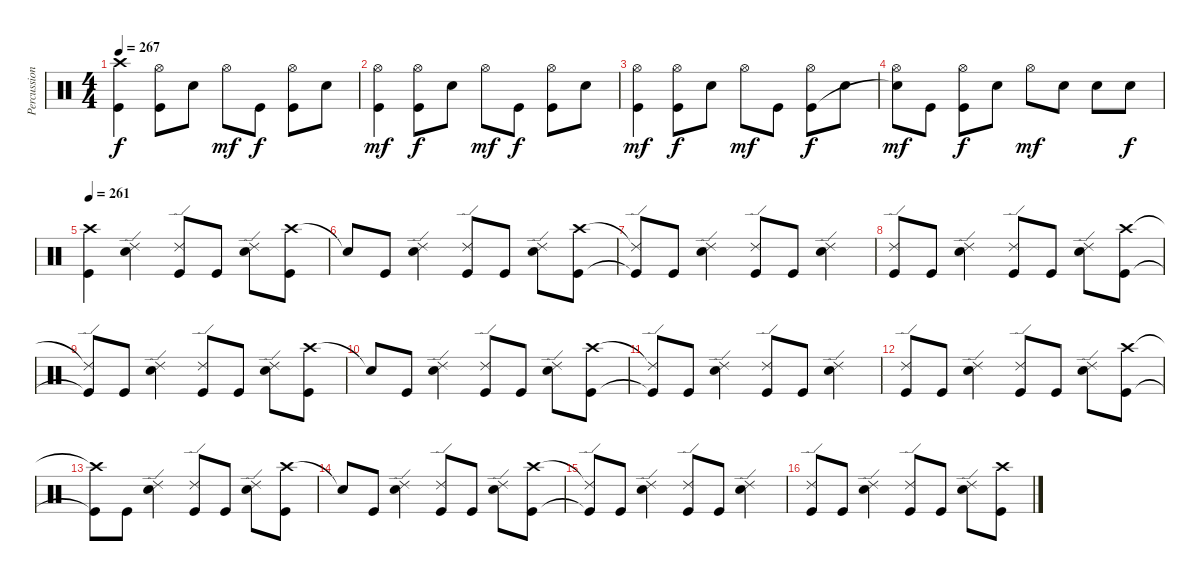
\track ("Percussion" "Percussion") {instrument percussion}
\staff {score}
\articulation defaults
\ts (4 4)
\tempo 267
\clef neutral
\ks c
("Crash high (hit)" "Kick (hit)").4{dy f} ("Hi-Hat (open)" "Kick (hit)").8 "Electric Snare (hit)".8 "Hi-Hat (open)".8{dy mf} "Kick (hit)".8{dy f} ("Hi-Hat (open)" "Kick (hit)").8 "Electric Snare (hit)".8 |
("Hi-Hat (open)" "Kick (hit)").4{dy mf} ("Hi-Hat (open)" "Kick (hit)").8{dy f} "Electric Snare (hit)".8 "Hi-Hat (open)".8{dy mf} "Kick (hit)".8{dy f} ("Hi-Hat (open)" "Kick (hit)").8 "Electric Snare (hit)".8 |
("Hi-Hat (open)" "Kick (hit)").4{dy mf} ("Hi-Hat (open)" "Kick (hit)").8{dy f} "Electric Snare (hit)".8 "Hi-Hat (open)".8{dy mf} "Kick (hit)".8 ("Hi-Hat (open)" "Kick (hit)").8{dy f} "Electric Snare (hit)".8 |
("Hi-Hat (open)" "Snare (hit)"{t}).8{dy mf} "Kick (hit)".8 ("Hi-Hat (open)" "Kick (hit)").8{dy f} "Electric Snare (hit)".8 "Hi-Hat (open)".8{dy mf} "Electric Snare (hit)".8 "Electric Snare (hit)".8 "Electric Snare (hit)".8{dy f} |
\tempo 261
("Crash high (hit)" "Kick (hit)").4 ("Ride (edge) 2" "Electric Snare (hit)").4 ("Ride (edge) 2" "Kick (hit)").8 "Kick (hit)".8 ("Ride (edge) 2" "Electric Snare (hit)").8 ("Crash high (hit)" "Kick (hit)").8 |
"Snare (hit)"{t}.8 "Kick (hit)".8 ("Ride (edge) 2" "Electric Snare (hit)").4 ("Ride (edge) 2" "Kick (hit)").8 "Kick (hit)".8 ("Ride (edge) 2" "Electric Snare (hit)").8 ("Crash high (hit)" "Kick (hit)").8 |
("Ride (edge) 2"{t} "Kick (hit)"{t}).8 "Kick (hit)".8 ("Ride (edge) 2" "Electric Snare (hit)").4 ("Ride (edge) 2" "Kick (hit)").8 "Kick (hit)".8 ("Ride (edge) 2" "Electric Snare (hit)").4 |
("Ride (edge) 2" "Kick (hit)").8 "Kick (hit)".8 ("Ride (edge) 2" "Electric Snare (hit)").4 ("Ride (edge) 2" "Kick (hit)").8 "Kick (hit)".8 ("Ride (edge) 2" "Electric Snare (hit)").8 ("Crash high (hit)" "Kick (hit)").8 |
("Ride (edge) 2"{t} "Kick (hit)"{t}).8 "Kick (hit)".8 ("Ride (edge) 2" "Electric Snare (hit)").4 ("Ride (edge) 2" "Kick (hit)").8 "Kick (hit)".8 ("Ride (edge) 2" "Electric Snare (hit)").8 ("Crash high (hit)" "Kick (hit)").8 |
"Snare (hit)"{t}.8 "Kick (hit)".8 ("Ride (edge) 2" "Electric Snare (hit)").4 ("Ride (edge) 2" "Kick (hit)").8 "Kick (hit)".8 ("Ride (edge) 2" "Electric Snare (hit)").8 ("Crash high (hit)" "Kick (hit)").8 |
("Ride (edge) 2"{t} "Kick (hit)"{t}).8 "Kick (hit)".8 ("Ride (edge) 2" "Electric Snare (hit)").4 ("Ride (edge) 2" "Kick (hit)").8 "Kick (hit)".8 ("Ride (edge) 2" "Electric Snare (hit)").4 |
("Ride (edge) 2" "Kick (hit)").8 "Kick (hit)".8 ("Ride (edge) 2" "Electric Snare (hit)").4 ("Ride (edge) 2" "Kick (hit)").8 "Kick (hit)".8 ("Ride (edge) 2" "Electric Snare (hit)").8 ("Crash high (hit)" "Kick (hit)").8 |
("Crash high (hit)"{t} "Kick (hit)"{t}).8 "Kick (hit)".8 ("Ride (edge) 2" "Electric Snare (hit)").4 ("Ride (edge) 2" "Kick (hit)").8 "Kick (hit)".8 ("Ride (edge) 2" "Electric Snare (hit)").8 ("Crash high (hit)" "Kick (hit)").8 |
"Snare (hit)"{t}.8 "Kick (hit)".8 ("Ride (edge) 2" "Electric Snare (hit)").4 ("Ride (edge) 2" "Kick (hit)").8 "Kick (hit)".8 ("Ride (edge) 2" "Electric Snare (hit)").8 ("Crash high (hit)" "Kick (hit)").8 |
("Ride (edge) 2"{t} "Kick (hit)"{t}).8 "Kick (hit)".8 ("Ride (edge) 2" "Electric Snare (hit)").4 ("Ride (edge) 2" "Kick (hit)").8 "Kick (hit)".8 ("Ride (edge) 2" "Electric Snare (hit)").4 |
("Ride (edge) 2" "Kick (hit)").8 "Kick (hit)".8 ("Ride (edge) 2" "Electric Snare (hit)").4 ("Ride (edge) 2" "Kick (hit)").8 "Kick (hit)".8 ("Ride (edge) 2" "Electric Snare (hit)").8 ("Crash high (hit)" "Kick (hit)").8
